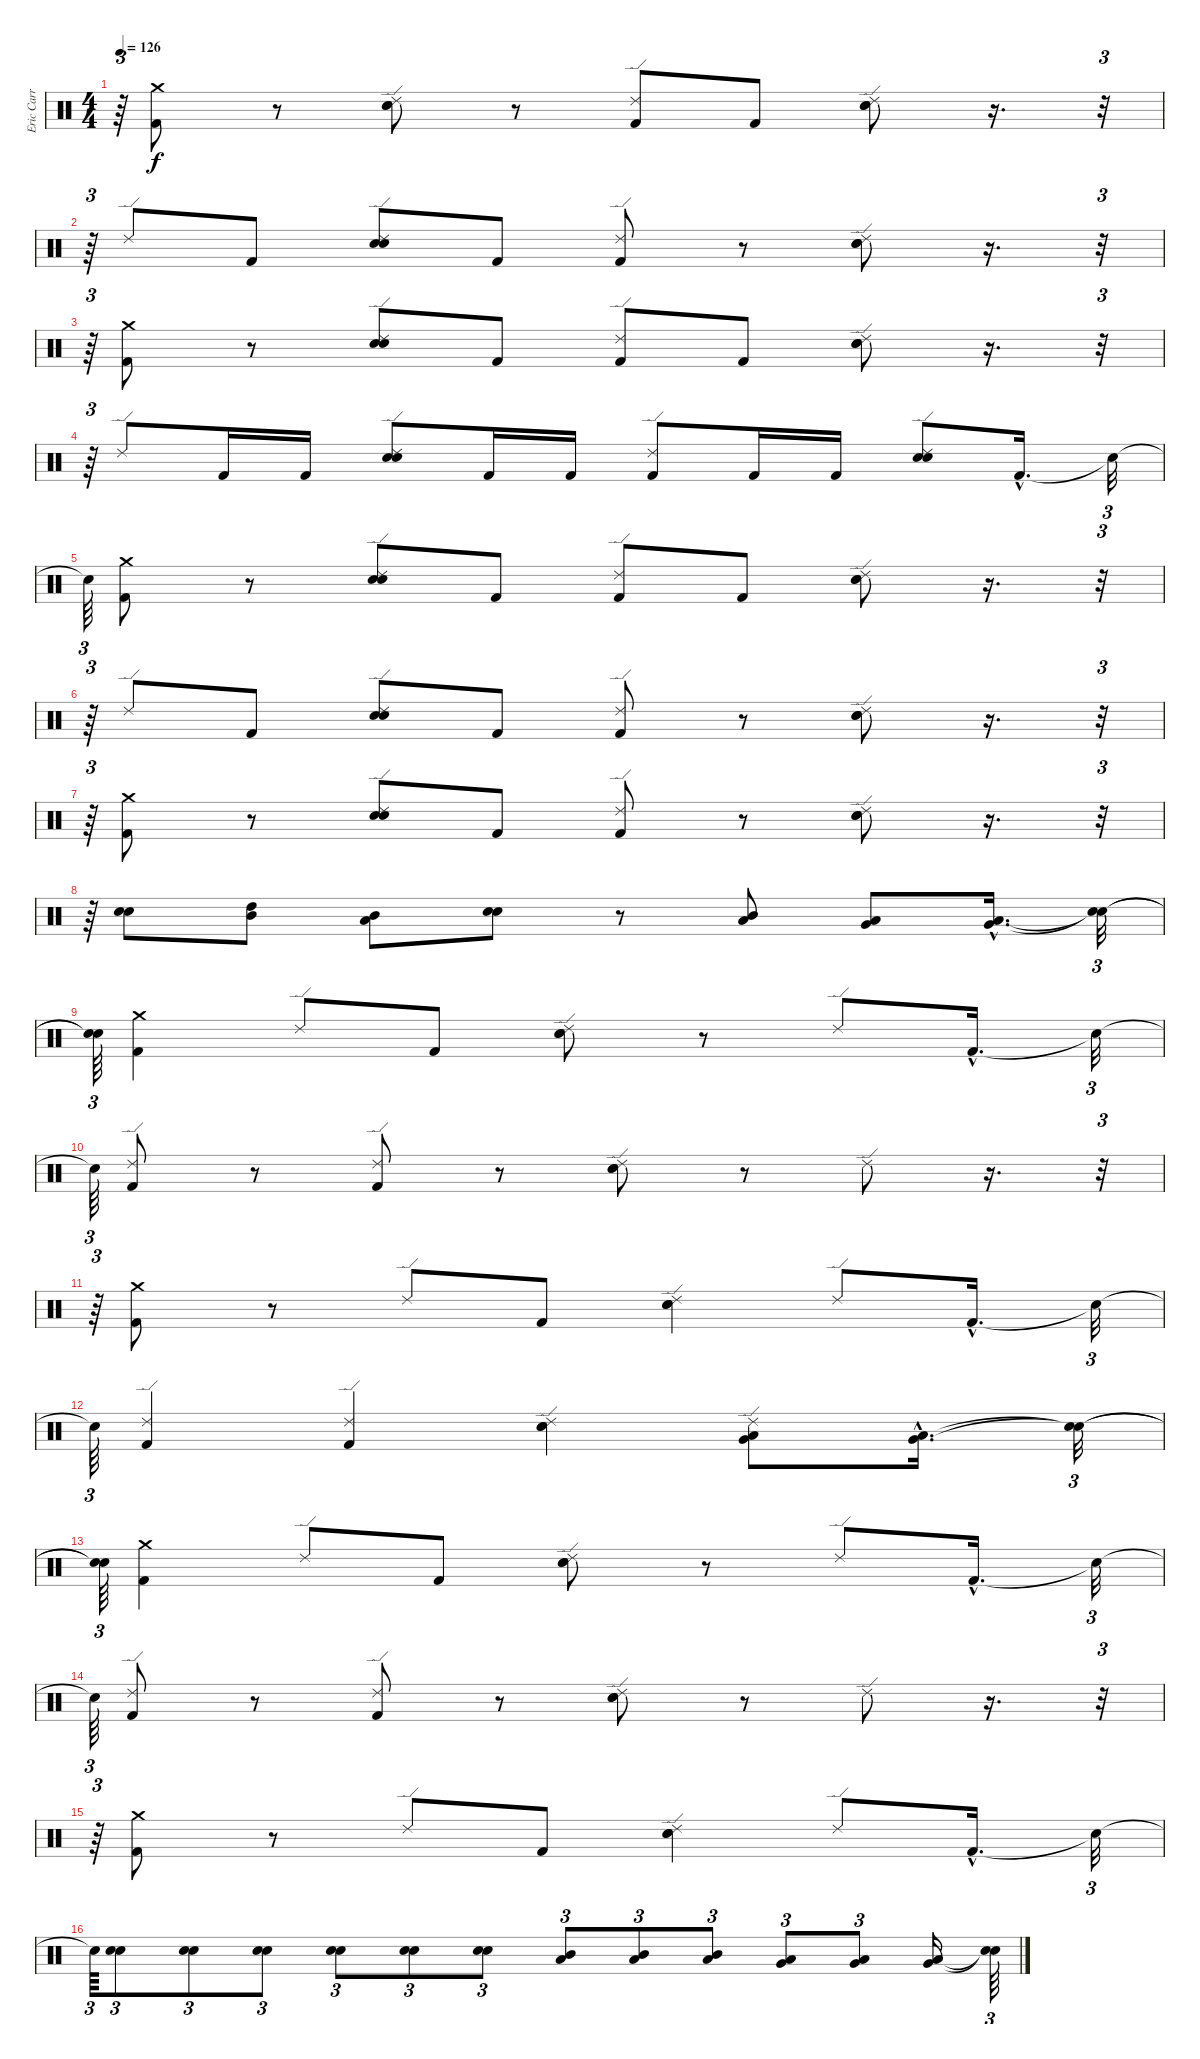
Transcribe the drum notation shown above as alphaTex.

\track ("Eric Carr" "Eric Carr") {instrument percussion}
\staff {score}
\articulation defaults
\ts (4 4)
\tempo 126
\clef neutral
\ks c
r.64{tu (3 2) dy f} ("Crash medium (hit)" "Kick (hit) 2").8 r.8 ("Ride (edge) 2" "Snare (hit) 2" "Electric Snare (hit)").8 r.8 ("Ride (edge) 2" "Kick (hit) 2").8 "Kick (hit) 2".8 ("Ride (edge) 2" "Snare (hit) 2" "Electric Snare (hit)").8 r.16{d} r.32{tu (3 2)} |
r.64{tu (3 2)} "Ride (edge) 2".8 "Kick (hit) 2".8 ("Ride (edge) 2" "Snare (hit) 2" "Electric Snare (hit)").8 "Kick (hit) 2".8 ("Ride (edge) 2" "Kick (hit) 2").8 r.8 ("Ride (edge) 2" "Electric Snare (hit)" "Snare (hit) 2").8 r.16{d} r.32{tu (3 2)} |
r.64{tu (3 2)} ("Crash medium (hit)" "Kick (hit) 2").8 r.8 ("Ride (edge) 2" "Snare (hit) 2" "Electric Snare (hit)").8 "Kick (hit) 2".8 ("Ride (edge) 2" "Kick (hit) 2").8 "Kick (hit) 2".8 ("Ride (edge) 2" "Snare (hit) 2" "Electric Snare (hit)").8 r.16{d} r.32{tu (3 2)} |
r.64{tu (3 2)} "Ride (edge) 2".8 "Kick (hit) 2".16 "Kick (hit) 2".16 ("Ride (edge) 2" "Snare (hit) 2" "Electric Snare (hit)").8 "Kick (hit) 2".16 "Kick (hit) 2".16 ("Ride (edge) 2" "Kick (hit) 2").8 "Kick (hit) 2".16 "Kick (hit) 2".16 ("Ride (edge) 2" "Electric Snare (hit)" "Snare (hit) 2").8 "Kick (hit) 2"{hac}.16{d} "Snare (hit)"{t}.32{tu (3 2)} |
"Snare (hit)"{t}.64{tu (3 2)} ("Crash medium (hit)" "Kick (hit) 2").8 r.8 ("Ride (edge) 2" "Snare (hit) 2" "Electric Snare (hit)").8 "Kick (hit) 2".8 ("Ride (edge) 2" "Kick (hit) 2").8 "Kick (hit) 2".8 ("Ride (edge) 2" "Snare (hit) 2" "Electric Snare (hit)").8 r.16{d} r.32{tu (3 2)} |
r.64{tu (3 2)} "Ride (edge) 2".8 "Kick (hit) 2".8 ("Ride (edge) 2" "Snare (hit) 2" "Electric Snare (hit)").8 "Kick (hit) 2".8 ("Ride (edge) 2" "Kick (hit) 2").8 r.8 ("Ride (edge) 2" "Electric Snare (hit)" "Snare (hit) 2").8 r.16{d} r.32{tu (3 2)} |
r.64{tu (3 2)} ("Crash medium (hit)" "Kick (hit) 2").8 r.8 ("Ride (edge) 2" "Snare (hit) 2" "Electric Snare (hit)").8 "Kick (hit) 2".8 ("Ride (edge) 2" "Kick (hit) 2").8 r.8 ("Ride (edge) 2" "Snare (hit) 2" "Electric Snare (hit)").8 r.16{d} r.32{tu (3 2)} |
r.64{tu (3 2)} ("Electric Snare (hit)" "Snare (hit) 2").8 ("High Tom (hit)" "Mid Tom (hit)").8 ("Low Tom (hit)" "Mid Tom (hit)").8 ("Electric Snare (hit)" "Snare (hit) 2").8 r.8 ("Low Tom (hit)" "Mid Tom (hit)").8 ("Very Low Tom (hit)" "Low Tom (hit)").8 ("Low Floor Tom (hit)"{hac} "Very Low Tom (hit)"{hac}).16{d} ("Snare (hit)"{t} "Snare (hit)"{t}).32{tu (3 2)} |
("Snare (hit)"{t} "Snare (hit)"{t}).64{tu (3 2)} ("Crash medium (hit)" "Kick (hit) 2").4 "Ride (edge) 2".8 "Kick (hit) 2".8 ("Ride (edge) 2" "Snare (hit) 2" "Electric Snare (hit)").8 r.8 "Ride (edge) 2".8 "Kick (hit) 2"{hac}.16{d} "Snare (hit)"{t}.32{tu (3 2)} |
"Snare (hit)"{t}.64{tu (3 2)} ("Ride (edge) 2" "Kick (hit) 2").8 r.8 ("Ride (edge) 2" "Kick (hit) 2").8 r.8 ("Ride (edge) 2" "Electric Snare (hit)" "Snare (hit) 2").8 r.8 "Ride (edge) 2".8 r.16{d} r.32{tu (3 2)} |
r.64{tu (3 2)} ("Crash medium (hit)" "Kick (hit) 2").8 r.8 "Ride (edge) 2".8 "Kick (hit) 2".8 ("Ride (edge) 2" "Electric Snare (hit)" "Snare (hit) 2").4 "Ride (edge) 2".8 "Kick (hit) 2"{hac}.16{d} "Snare (hit)"{t}.32{tu (3 2)} |
"Snare (hit)"{t}.64{tu (3 2)} ("Ride (edge) 2" "Kick (hit) 2").4 ("Ride (edge) 2" "Kick (hit) 2").4 ("Ride (edge) 2" "Electric Snare (hit)" "Snare (hit) 2").4 ("Ride (edge) 2" "Very Low Tom (hit)" "Low Tom (hit)").8 ("Very Low Tom (hit)"{hac} "Low Tom (hit)"{hac}).16{d} ("Snare (hit)"{t} "Snare (hit)"{t}).32{tu (3 2)} |
("Snare (hit)"{t} "Snare (hit)"{t}).64{tu (3 2)} ("Crash medium (hit)" "Kick (hit) 2").4 "Ride (edge) 2".8 "Kick (hit) 2".8 ("Ride (edge) 2" "Snare (hit) 2" "Electric Snare (hit)").8 r.8 "Ride (edge) 2".8 "Kick (hit) 2"{hac}.16{d} "Snare (hit)"{t}.32{tu (3 2)} |
"Snare (hit)"{t}.64{tu (3 2)} ("Ride (edge) 2" "Kick (hit) 2").8 r.8 ("Ride (edge) 2" "Kick (hit) 2").8 r.8 ("Ride (edge) 2" "Electric Snare (hit)" "Snare (hit) 2").8 r.8 "Ride (edge) 2".8 r.16{d} r.32{tu (3 2)} |
r.64{tu (3 2)} ("Crash medium (hit)" "Kick (hit) 2").8 r.8 "Ride (edge) 2".8 "Kick (hit) 2".8 ("Ride (edge) 2" "Electric Snare (hit)" "Snare (hit) 2").4 "Ride (edge) 2".8 "Kick (hit) 2"{hac}.16{d} "Snare (hit)"{t}.32{tu (3 2)} |
"Snare (hit)"{t}.64{tu (3 2)} ("Snare (hit) 2" "Electric Snare (hit)").8{tu (3 2)} ("Snare (hit) 2" "Electric Snare (hit)").8{tu (3 2)} ("Snare (hit) 2" "Electric Snare (hit)").8{tu (3 2)} ("Snare (hit) 2" "Electric Snare (hit)").8{tu (3 2)} ("Snare (hit) 2" "Electric Snare (hit)").8{tu (3 2)} ("Snare (hit) 2" "Electric Snare (hit)").8{tu (3 2)} ("Mid Tom (hit)" "Low Tom (hit)").8{tu (3 2)} ("Mid Tom (hit)" "Low Tom (hit)").8{tu (3 2)} ("Mid Tom (hit)" "Low Tom (hit)").8{tu (3 2)} ("Low Tom (hit)" "Very Low Tom (hit)").8{tu (3 2)} ("Low Tom (hit)" "Very Low Tom (hit)").8{tu (3 2)} ("Low Tom (hit)" "Very Low Tom (hit)").16 ("Snare (hit)"{t} "Snare (hit)"{t}).64{tu (3 2)}
